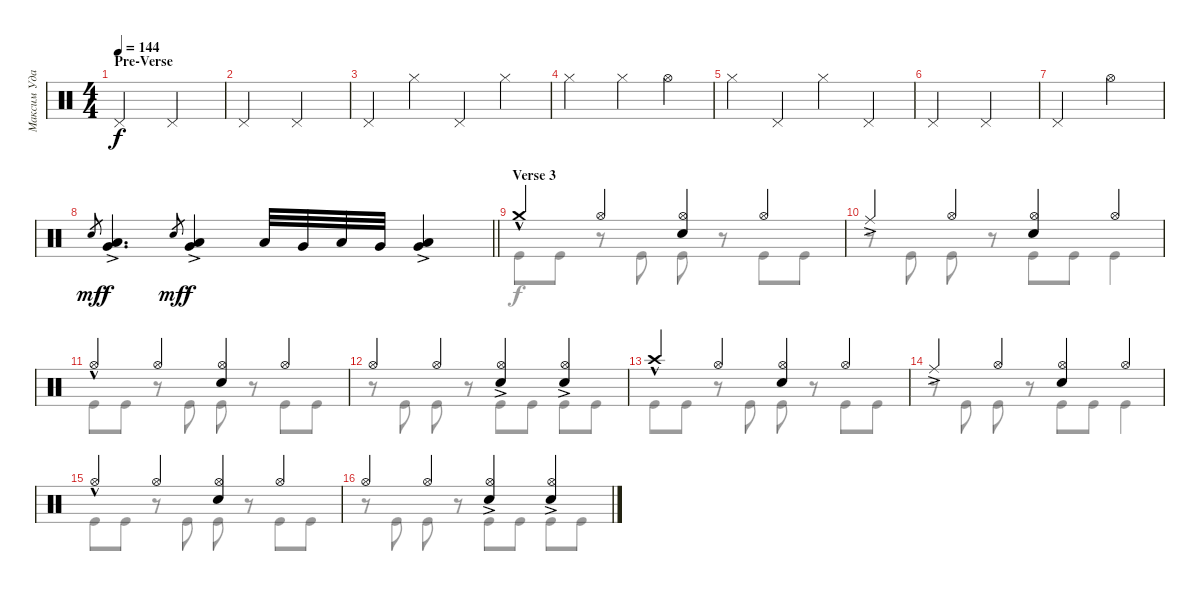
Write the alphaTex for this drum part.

\track ("Максим Удалов" "Максим Уда") {instrument percussion}
\staff {score}
\articulation defaults
\voice
\ts (4 4)
\section ("" "Pre-Verse")
\tempo 144
\clef neutral
\ks c "Pedal Hi-Hat (hit)".2{dy f} "Pedal Hi-Hat (hit)".2
|
"Pedal Hi-Hat (hit)".2 "Pedal Hi-Hat (hit)".2 |
"Pedal Hi-Hat (hit)".4 "Hi-Hat (closed)".4 "Pedal Hi-Hat (hit)".4 "Hi-Hat (closed)".4 |
"Hi-Hat (closed)".2 "Hi-Hat (closed)".4 "Hi-Hat (open)".4 |
"Hi-Hat (closed)".4 "Pedal Hi-Hat (hit)".4 "Hi-Hat (closed)".4 "Pedal Hi-Hat (hit)".4 |
"Pedal Hi-Hat (hit)".2 "Pedal Hi-Hat (hit)".2 |
"Pedal Hi-Hat (hit)".2 "Hi-Hat (open)".2 |
\barLineRight lightlight "Snare (hit)".8{gr dy mf}
("Low Tom (hit)"{ac} "Very Low Tom (hit)"{ac}).4{d dy f} "Snare (hit)".8{gr dy mf} ("Low Tom (hit)"{ac} "Very Low Tom (hit)"{ac}).4{dy f} "Low Tom (hit)".32 "Very Low Tom (hit)".32 "Low Tom (hit)".32 "Very Low Tom (hit)".32 ("Low Tom (hit)"{ac} "Very Low Tom (hit)"{ac}).4 |
\section ("" "Verse 3")
"Crash medium (hit)"{hac}.4 "Hi-Hat (open)".4 ("Hi-Hat (open)" "Snare (hit) 2").4 "Hi-Hat (open)".4 |
"Ride (middle)"{ac}.4 "Hi-Hat (open)".4 ("Hi-Hat (open)" "Snare (hit) 2").4 "Hi-Hat (open)".4 |
"Hi-Hat (open)"{hac}.4 "Hi-Hat (open)".4 ("Hi-Hat (open)" "Snare (hit) 2").4 "Hi-Hat (open)".4 |
"Hi-Hat (open)".4 "Hi-Hat (open)".4 ("Hi-Hat (open)"{ac} "Snare (hit) 2").4 ("Hi-Hat (open)"{ac} "Snare (hit) 2").4 |
"Crash high (hit)"{hac}.4 "Hi-Hat (open)".4 ("Hi-Hat (open)" "Snare (hit) 2").4 "Hi-Hat (open)".4 |
"Ride (middle)"{ac}.4 "Hi-Hat (open)".4 ("Hi-Hat (open)" "Snare (hit) 2").4 "Hi-Hat (open)".4 |
"Hi-Hat (open)"{hac}.4 "Hi-Hat (open)".4 ("Hi-Hat (open)" "Snare (hit) 2").4 "Hi-Hat (open)".4 |
"Hi-Hat (open)".4 "Hi-Hat (open)".4 ("Hi-Hat (open)"{ac} "Snare (hit) 2").4 ("Hi-Hat (open)"{ac} "Snare (hit) 2").4
\voice
\clef neutral
\ottava regular
\simile none
\ks c
|
|
|
|
|
|
|
\barLineRight lightlight
|
"Kick (hit)".8 "Kick (hit)".8 r.8 "Kick (hit)".8 "Kick (hit)".8 r.8 "Kick (hit)".8 "Kick (hit)".8 |
r.8 "Kick (hit)".8 "Kick (hit)".8 r.8 "Kick (hit)".8 "Kick (hit)".8 "Kick (hit)".4 |
"Kick (hit)".8 "Kick (hit)".8 r.8 "Kick (hit)".8 "Kick (hit)".8 r.8 "Kick (hit)".8 "Kick (hit)".8 |
r.8 "Kick (hit)".8 "Kick (hit)".8 r.8 "Kick (hit)".8 "Kick (hit)".8 "Kick (hit)".8 "Kick (hit)".8 |
"Kick (hit)".8 "Kick (hit)".8 r.8 "Kick (hit)".8 "Kick (hit)".8 r.8 "Kick (hit)".8 "Kick (hit)".8 |
r.8 "Kick (hit)".8 "Kick (hit)".8 r.8 "Kick (hit)".8 "Kick (hit)".8 "Kick (hit)".4 |
"Kick (hit)".8 "Kick (hit)".8 r.8 "Kick (hit)".8 "Kick (hit)".8 r.8 "Kick (hit)".8 "Kick (hit)".8 |
r.8 "Kick (hit)".8 "Kick (hit)".8 r.8 "Kick (hit)".8 "Kick (hit)".8 "Kick (hit)".8 "Kick (hit)".8
